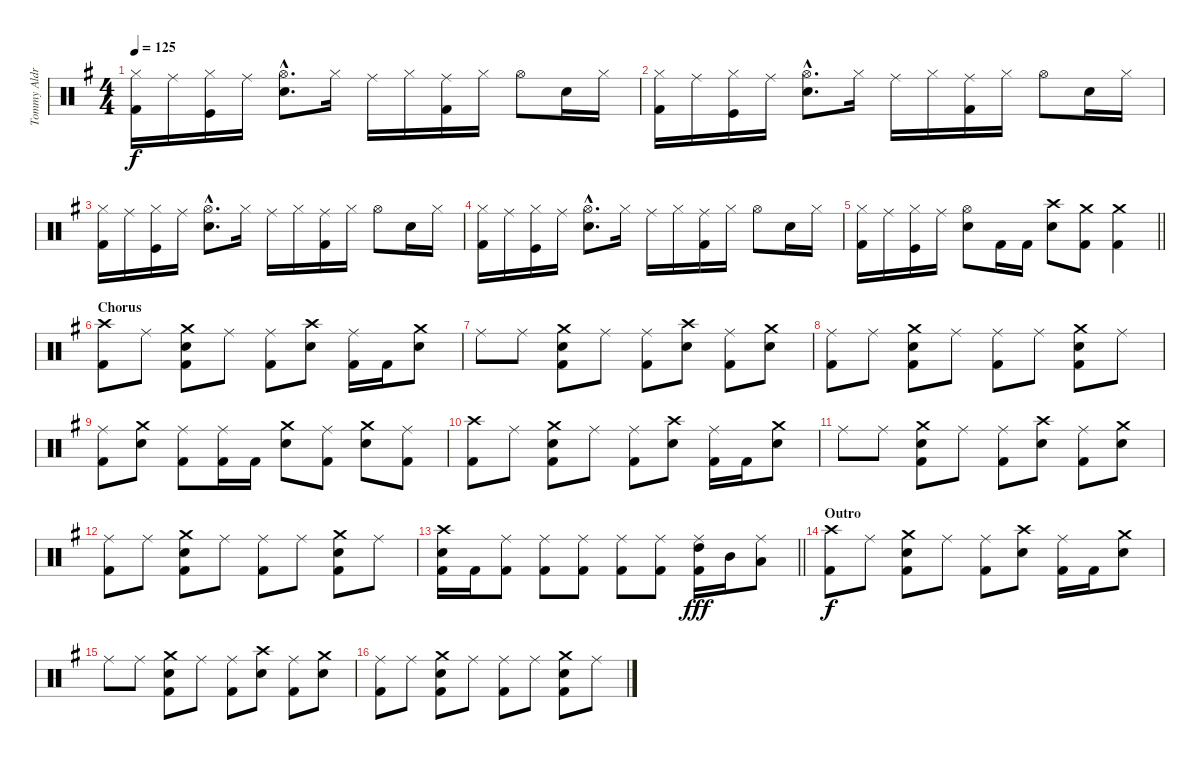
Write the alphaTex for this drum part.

\track ("Tommy Aldridge" "Tommy Aldr") {instrument percussion}
\staff {score}
\articulation defaults
\ts (4 4)
\tempo 125
\clef neutral
\ks eminor
("Hi-Hat (closed)" "Kick (hit) 2").16{dy f} "Ride (middle)".16 ("Hi-Hat (closed)" "Kick (hit)").16 "Ride (middle)".16 ("Hi-Hat (open)"{hac} "Snare (hit) 2"{hac}).8{d} "Hi-Hat (closed)".16 "Ride (middle)".16 "Hi-Hat (closed)".16 ("Ride (middle)" "Kick (hit) 2").16 "Hi-Hat (closed)".16 "Hi-Hat (open)".8 "Snare (hit) 2".16 "Hi-Hat (closed)".16 |
("Hi-Hat (closed)" "Kick (hit) 2").16 "Ride (middle)".16 ("Hi-Hat (closed)" "Kick (hit)").16 "Ride (middle)".16 ("Hi-Hat (open)"{hac} "Snare (hit) 2"{hac}).8{d} "Hi-Hat (closed)".16 "Ride (middle)".16 "Hi-Hat (closed)".16 ("Ride (middle)" "Kick (hit) 2").16 "Hi-Hat (closed)".16 "Hi-Hat (open)".8 "Snare (hit) 2".16 "Hi-Hat (closed)".16 |
("Hi-Hat (closed)" "Kick (hit) 2").16 "Ride (middle)".16 ("Hi-Hat (closed)" "Kick (hit)").16 "Ride (middle)".16 ("Hi-Hat (open)"{hac} "Snare (hit) 2"{hac}).8{d} "Hi-Hat (closed)".16 "Ride (middle)".16 "Hi-Hat (closed)".16 ("Ride (middle)" "Kick (hit) 2").16 "Hi-Hat (closed)".16 "Hi-Hat (open)".8 "Snare (hit) 2".16 "Hi-Hat (closed)".16 |
("Hi-Hat (closed)" "Kick (hit) 2").16 "Ride (middle)".16 ("Hi-Hat (closed)" "Kick (hit)").16 "Ride (middle)".16 ("Hi-Hat (open)"{hac} "Snare (hit) 2"{hac}).8{d} "Hi-Hat (closed)".16 "Ride (middle)".16 "Hi-Hat (closed)".16 ("Ride (middle)" "Kick (hit) 2").16 "Hi-Hat (closed)".16 "Hi-Hat (open)".8 "Snare (hit) 2".16 "Hi-Hat (closed)".16 |
\barLineRight lightlight
("Hi-Hat (closed)" "Kick (hit) 2").16 "Ride (middle)".16 ("Hi-Hat (closed)" "Kick (hit)").16 "Ride (middle)".16 ("Hi-Hat (open)" "Snare (hit) 2").8 "Kick (hit) 2".16 "Kick (hit) 2".16 ("Crash high (hit)" "Snare (hit) 2").8 ("Crash medium (hit)" "Kick (hit) 2").8 ("Crash medium (hit)" "Kick (hit) 2").4 |
\section ("" "Chorus")
("Crash high (hit)" "Kick (hit) 2").8 "Ride (middle)".8 ("Crash medium (hit)" "Snare (hit) 2" "Kick (hit) 2").8 "Ride (middle)".8 ("Ride (middle)" "Kick (hit) 2").8 ("Crash high (hit)" "Snare (hit) 2").8 ("Ride (middle)" "Kick (hit) 2").16 "Kick (hit) 2".16 ("Crash medium (hit)" "Snare (hit) 2").8 |
"Ride (middle)".8 "Ride (middle)".8 ("Crash medium (hit)" "Snare (hit) 2" "Kick (hit) 2").8 "Ride (middle)".8 ("Ride (middle)" "Kick (hit) 2").8 ("Crash high (hit)" "Snare (hit) 2").8 ("Ride (middle)" "Kick (hit) 2").8 ("Crash medium (hit)" "Snare (hit) 2").8 |
("Ride (middle)" "Kick (hit) 2").8 "Ride (middle)".8 ("Crash medium (hit)" "Snare (hit) 2" "Kick (hit) 2").8 "Ride (middle)".8 ("Ride (middle)" "Kick (hit) 2").8 "Ride (middle)".8 ("Crash medium (hit)" "Snare (hit) 2" "Kick (hit) 2").8 "Ride (middle)".8 |
("Ride (middle)" "Kick (hit) 2").8 ("Crash medium (hit)" "Snare (hit) 2").8 ("Ride (middle)" "Kick (hit) 2").8 ("Ride (middle)" "Kick (hit) 2").16 "Kick (hit) 2".16 ("Crash medium (hit)" "Snare (hit) 2").8 ("Ride (middle)" "Kick (hit) 2").8 ("Crash medium (hit)" "Snare (hit) 2").8 ("Ride (middle)" "Kick (hit) 2").8 |
("Crash high (hit)" "Kick (hit) 2").8 "Ride (middle)".8 ("Crash medium (hit)" "Snare (hit) 2" "Kick (hit) 2").8 "Ride (middle)".8 ("Ride (middle)" "Kick (hit) 2").8 ("Crash high (hit)" "Snare (hit) 2").8 ("Ride (middle)" "Kick (hit) 2").16 "Kick (hit) 2".16 ("Crash medium (hit)" "Snare (hit) 2").8 |
"Ride (middle)".8 "Ride (middle)".8 ("Crash medium (hit)" "Snare (hit) 2" "Kick (hit) 2").8 "Ride (middle)".8 ("Ride (middle)" "Kick (hit) 2").8 ("Crash high (hit)" "Snare (hit) 2").8 ("Ride (middle)" "Kick (hit) 2").8 ("Crash medium (hit)" "Snare (hit) 2").8 |
("Ride (middle)" "Kick (hit) 2").8 "Ride (middle)".8 ("Crash medium (hit)" "Snare (hit) 2" "Kick (hit) 2").8 "Ride (middle)".8 ("Ride (middle)" "Kick (hit) 2").8 "Ride (middle)".8 ("Crash medium (hit)" "Snare (hit) 2" "Kick (hit) 2").8 "Ride (middle)".8 |
\barLineRight lightlight
("Crash high (hit)" "Snare (hit) 2" "Kick (hit) 2").16 "Kick (hit) 2".16 ("Ride (middle)" "Kick (hit) 2").8 ("Ride (middle)" "Kick (hit) 2").8 ("Ride (middle)" "Kick (hit) 2").8 ("Ride (middle)" "Kick (hit) 2").8 ("Ride (middle)" "Kick (hit) 2").8 ("Ride (middle)" "High Tom (hit)" "Kick (hit) 2").16{dy fff} "Mid Tom (hit)".16 ("Ride (middle)" "Low Tom (hit)").8 |
\section ("" "Outro")
("Crash high (hit)" "Kick (hit) 2").8{dy f} "Ride (middle)".8 ("Crash medium (hit)" "Snare (hit) 2" "Kick (hit) 2").8 "Ride (middle)".8 ("Ride (middle)" "Kick (hit) 2").8 ("Crash high (hit)" "Snare (hit) 2").8 ("Ride (middle)" "Kick (hit) 2").16 "Kick (hit) 2".16 ("Crash medium (hit)" "Snare (hit) 2").8 |
"Ride (middle)".8 "Ride (middle)".8 ("Crash medium (hit)" "Snare (hit) 2" "Kick (hit) 2").8 "Ride (middle)".8 ("Ride (middle)" "Kick (hit) 2").8 ("Crash high (hit)" "Snare (hit) 2").8 ("Ride (middle)" "Kick (hit) 2").8 ("Crash medium (hit)" "Snare (hit) 2").8 |
("Ride (middle)" "Kick (hit) 2").8 "Ride (middle)".8 ("Crash medium (hit)" "Snare (hit) 2" "Kick (hit) 2").8 "Ride (middle)".8 ("Ride (middle)" "Kick (hit) 2").8 "Ride (middle)".8 ("Crash medium (hit)" "Snare (hit) 2" "Kick (hit) 2").8 "Ride (middle)".8
